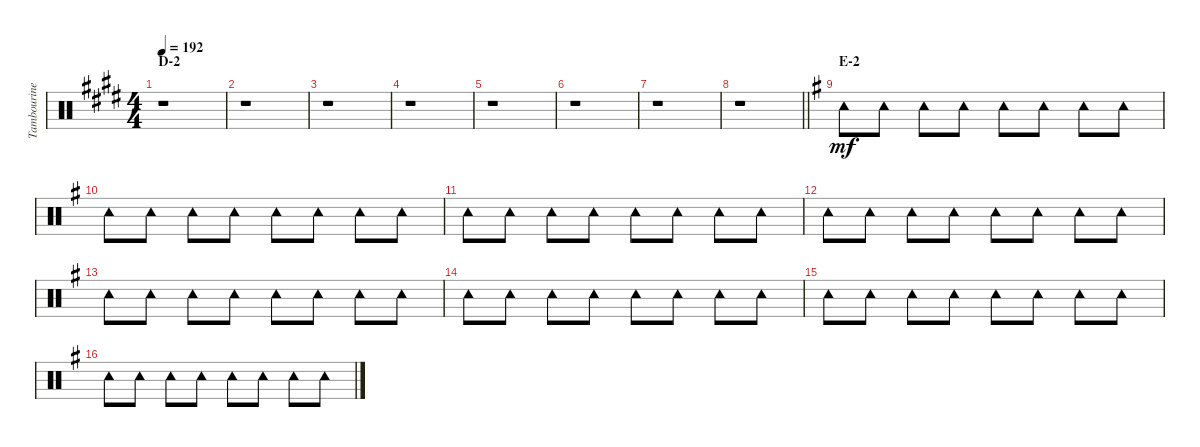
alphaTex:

\track ("Tambourine" "Tambourine") {instrument percussion}
\staff {score}
\articulation defaults
\ts (4 4)
\section ("" "D-2")
\tempo 192
\clef neutral
\ks e
r.1{dy mf} |
r.1 |
r.1 |
r.1 |
r.1 |
r.1 |
r.1 |
\barLineRight lightlight
r.1 |
\section ("" "E-2")
\ks g "Tambourine (hit)".8 "Tambourine (hit)".8 "Tambourine (hit)".8 "Tambourine (hit)".8 "Tambourine (hit)".8 "Tambourine (hit)".8 "Tambourine (hit)".8 "Tambourine (hit)".8
|
"Tambourine (hit)".8 "Tambourine (hit)".8 "Tambourine (hit)".8 "Tambourine (hit)".8 "Tambourine (hit)".8 "Tambourine (hit)".8 "Tambourine (hit)".8 "Tambourine (hit)".8 |
"Tambourine (hit)".8 "Tambourine (hit)".8 "Tambourine (hit)".8 "Tambourine (hit)".8 "Tambourine (hit)".8 "Tambourine (hit)".8 "Tambourine (hit)".8 "Tambourine (hit)".8 |
"Tambourine (hit)".8 "Tambourine (hit)".8 "Tambourine (hit)".8 "Tambourine (hit)".8 "Tambourine (hit)".8 "Tambourine (hit)".8 "Tambourine (hit)".8 "Tambourine (hit)".8 |
"Tambourine (hit)".8 "Tambourine (hit)".8 "Tambourine (hit)".8 "Tambourine (hit)".8 "Tambourine (hit)".8 "Tambourine (hit)".8 "Tambourine (hit)".8 "Tambourine (hit)".8 |
"Tambourine (hit)".8 "Tambourine (hit)".8 "Tambourine (hit)".8 "Tambourine (hit)".8 "Tambourine (hit)".8 "Tambourine (hit)".8 "Tambourine (hit)".8 "Tambourine (hit)".8 |
"Tambourine (hit)".8 "Tambourine (hit)".8 "Tambourine (hit)".8 "Tambourine (hit)".8 "Tambourine (hit)".8 "Tambourine (hit)".8 "Tambourine (hit)".8 "Tambourine (hit)".8 |
"Tambourine (hit)".8 "Tambourine (hit)".8 "Tambourine (hit)".8 "Tambourine (hit)".8 "Tambourine (hit)".8 "Tambourine (hit)".8 "Tambourine (hit)".8 "Tambourine (hit)".8
